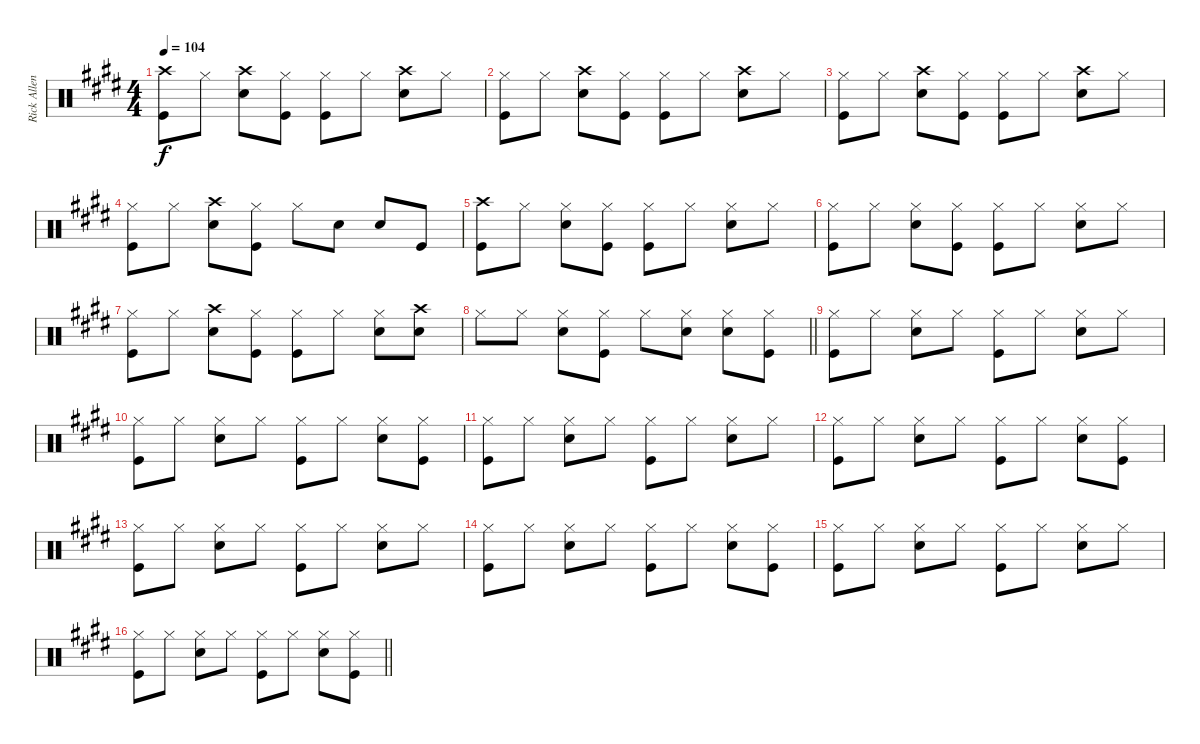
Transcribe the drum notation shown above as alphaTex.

\track ("Rick Allen" "Rick Allen") {instrument percussion}
\staff {score}
\articulation defaults
\ts (4 4)
\tempo 104
\clef neutral
\ks e
("Crash high (hit)" "Kick (hit)").8{dy f} "Hi-Hat (closed)".8 ("Crash high (hit)" "Snare (hit) 2").8 ("Hi-Hat (closed)" "Kick (hit)").8 ("Hi-Hat (closed)" "Kick (hit)").8 "Hi-Hat (closed)".8 ("Crash high (hit)" "Snare (hit) 2").8 "Hi-Hat (closed)".8 |
("Hi-Hat (closed)" "Kick (hit)").8 "Hi-Hat (closed)".8 ("Crash high (hit)" "Snare (hit) 2").8 ("Hi-Hat (closed)" "Kick (hit)").8 ("Hi-Hat (closed)" "Kick (hit)").8 "Hi-Hat (closed)".8 ("Crash high (hit)" "Snare (hit) 2").8 "Hi-Hat (closed)".8 |
("Hi-Hat (closed)" "Kick (hit)").8 "Hi-Hat (closed)".8 ("Crash high (hit)" "Snare (hit) 2").8 ("Hi-Hat (closed)" "Kick (hit)").8 ("Hi-Hat (closed)" "Kick (hit)").8 "Hi-Hat (closed)".8 ("Crash high (hit)" "Snare (hit) 2").8 "Hi-Hat (closed)".8 |
("Hi-Hat (closed)" "Kick (hit)").8 "Hi-Hat (closed)".8 ("Crash high (hit)" "Snare (hit) 2").8 ("Hi-Hat (closed)" "Kick (hit)").8 "Hi-Hat (closed)".8 "Snare (hit) 2".8 "Snare (hit) 2".8 "Kick (hit)".8 |
("Crash high (hit)" "Kick (hit)").8 "Hi-Hat (closed)".8 ("Hi-Hat (closed)" "Snare (hit) 2").8 ("Hi-Hat (closed)" "Kick (hit)").8 ("Hi-Hat (closed)" "Kick (hit)").8 "Hi-Hat (closed)".8 ("Hi-Hat (closed)" "Snare (hit) 2").8 "Hi-Hat (closed)".8 |
("Hi-Hat (closed)" "Kick (hit)").8 "Hi-Hat (closed)".8 ("Hi-Hat (closed)" "Snare (hit) 2").8 ("Hi-Hat (closed)" "Kick (hit)").8 ("Hi-Hat (closed)" "Kick (hit)").8 "Hi-Hat (closed)".8 ("Hi-Hat (closed)" "Snare (hit) 2").8 "Hi-Hat (closed)".8 |
("Hi-Hat (closed)" "Kick (hit)").8 "Hi-Hat (closed)".8 ("Crash high (hit)" "Snare (hit) 2").8 ("Hi-Hat (closed)" "Kick (hit)").8 ("Hi-Hat (closed)" "Kick (hit)").8 "Hi-Hat (closed)".8 ("Hi-Hat (closed)" "Snare (hit) 2").8 ("Crash high (hit)" "Snare (hit) 2").8 |
\barLineRight lightlight "Hi-Hat (closed)".8 "Hi-Hat (closed)".8
("Hi-Hat (closed)" "Snare (hit) 2").8 ("Hi-Hat (closed)" "Kick (hit)").8 "Hi-Hat (closed)".8 ("Hi-Hat (closed)" "Snare (hit) 2").8 ("Hi-Hat (closed)" "Snare (hit) 2").8 ("Hi-Hat (closed)" "Kick (hit)").8 |
("Hi-Hat (closed)" "Kick (hit)").8 "Hi-Hat (closed)".8 ("Hi-Hat (closed)" "Snare (hit) 2").8 "Hi-Hat (closed)".8 ("Hi-Hat (closed)" "Kick (hit)").8 "Hi-Hat (closed)".8 ("Hi-Hat (closed)" "Snare (hit) 2").8 "Hi-Hat (closed)".8 |
("Hi-Hat (closed)" "Kick (hit)").8 "Hi-Hat (closed)".8 ("Hi-Hat (closed)" "Snare (hit) 2").8 "Hi-Hat (closed)".8 ("Hi-Hat (closed)" "Kick (hit)").8 "Hi-Hat (closed)".8 ("Hi-Hat (closed)" "Snare (hit) 2").8 ("Hi-Hat (closed)" "Kick (hit)").8 |
("Hi-Hat (closed)" "Kick (hit)").8 "Hi-Hat (closed)".8 ("Hi-Hat (closed)" "Snare (hit) 2").8 "Hi-Hat (closed)".8 ("Hi-Hat (closed)" "Kick (hit)").8 "Hi-Hat (closed)".8 ("Hi-Hat (closed)" "Snare (hit) 2").8 "Hi-Hat (closed)".8 |
("Hi-Hat (closed)" "Kick (hit)").8 "Hi-Hat (closed)".8 ("Hi-Hat (closed)" "Snare (hit) 2").8 "Hi-Hat (closed)".8 ("Hi-Hat (closed)" "Kick (hit)").8 "Hi-Hat (closed)".8 ("Hi-Hat (closed)" "Snare (hit) 2").8 ("Hi-Hat (closed)" "Kick (hit)").8 |
("Hi-Hat (closed)" "Kick (hit)").8 "Hi-Hat (closed)".8 ("Hi-Hat (closed)" "Snare (hit) 2").8 "Hi-Hat (closed)".8 ("Hi-Hat (closed)" "Kick (hit)").8 "Hi-Hat (closed)".8 ("Hi-Hat (closed)" "Snare (hit) 2").8 "Hi-Hat (closed)".8 |
("Hi-Hat (closed)" "Kick (hit)").8 "Hi-Hat (closed)".8 ("Hi-Hat (closed)" "Snare (hit) 2").8 "Hi-Hat (closed)".8 ("Hi-Hat (closed)" "Kick (hit)").8 "Hi-Hat (closed)".8 ("Hi-Hat (closed)" "Snare (hit) 2").8 ("Hi-Hat (closed)" "Kick (hit)").8 |
("Hi-Hat (closed)" "Kick (hit)").8 "Hi-Hat (closed)".8 ("Hi-Hat (closed)" "Snare (hit) 2").8 "Hi-Hat (closed)".8 ("Hi-Hat (closed)" "Kick (hit)").8 "Hi-Hat (closed)".8 ("Hi-Hat (closed)" "Snare (hit) 2").8 "Hi-Hat (closed)".8 |
\barLineRight lightlight
("Hi-Hat (closed)" "Kick (hit)").8 "Hi-Hat (closed)".8 ("Hi-Hat (closed)" "Snare (hit) 2").8 "Hi-Hat (closed)".8 ("Hi-Hat (closed)" "Kick (hit)").8 "Hi-Hat (closed)".8 ("Hi-Hat (closed)" "Snare (hit) 2").8 ("Hi-Hat (closed)" "Kick (hit)").8
